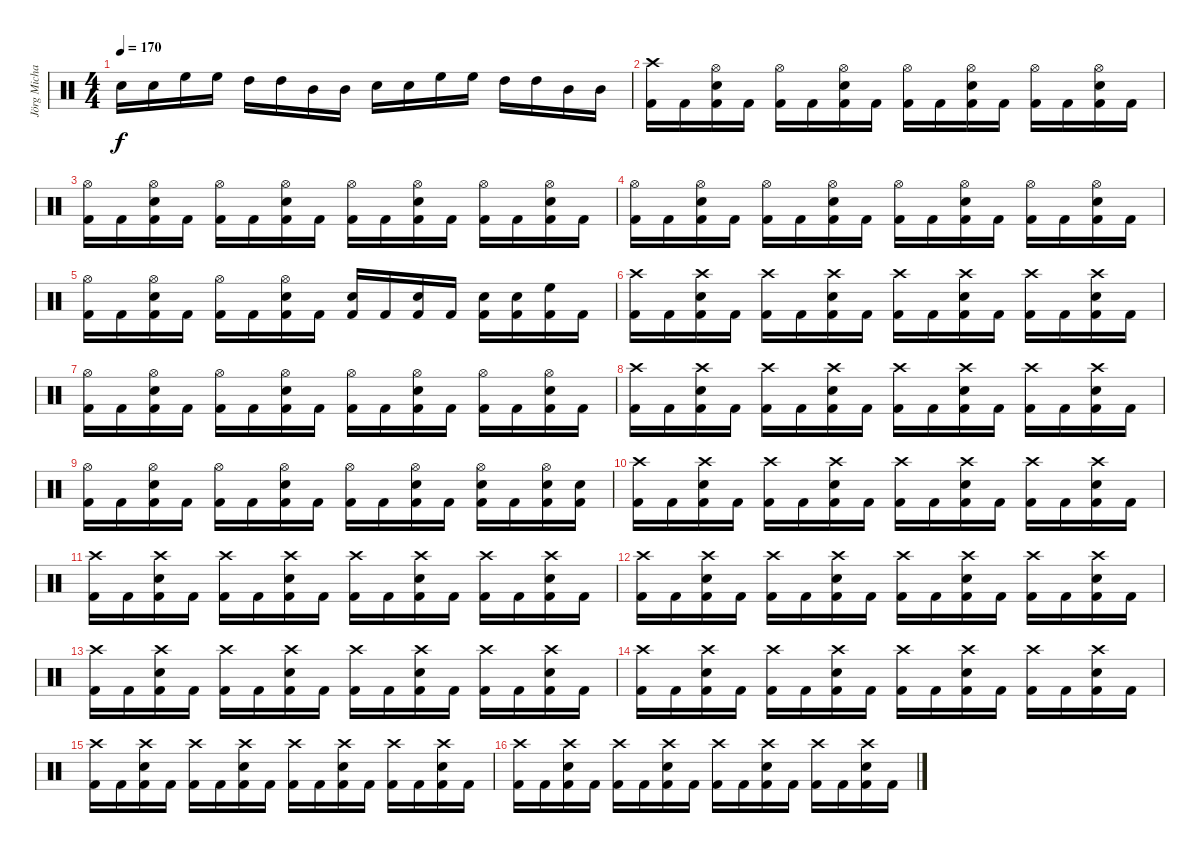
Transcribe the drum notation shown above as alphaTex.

\track ("Jörg Michael (Drums)" "Jörg Micha") {instrument percussion}
\staff {score}
\articulation defaults
\ts (4 4)
\tempo 170
\clef neutral
\ks c "Snare (hit) 2".16{dy f} "Snare (hit) 2".16 "High Floor Tom (hit)".16 "High Floor Tom (hit)".16 "High Tom (hit)".16 "High Tom (hit)".16 "Mid Tom (hit)".16 "Mid Tom (hit)".16 "Snare (hit) 2".16 "Snare (hit) 2".16 "High Floor Tom (hit)".16 "High Floor Tom (hit)".16 "High Tom (hit)".16 "High Tom (hit)".16 "Mid Tom (hit)".16 "Mid Tom (hit)".16
|
("Kick (hit) 2" "Crash high (hit)").16 "Kick (hit) 2".16 ("Kick (hit) 2" "Snare (hit) 2" "Hi-Hat (open)").16 "Kick (hit) 2".16 ("Kick (hit) 2" "Hi-Hat (open)").16 "Kick (hit) 2".16 ("Kick (hit) 2" "Snare (hit) 2" "Hi-Hat (open)").16 "Kick (hit) 2".16 ("Kick (hit) 2" "Hi-Hat (open)").16 "Kick (hit) 2".16 ("Kick (hit) 2" "Snare (hit) 2" "Hi-Hat (open)").16 "Kick (hit) 2".16 ("Kick (hit) 2" "Hi-Hat (open)").16 "Kick (hit) 2".16 ("Kick (hit) 2" "Snare (hit) 2" "Hi-Hat (open)").16 "Kick (hit) 2".16 |
("Hi-Hat (open)" "Kick (hit) 2").16 "Kick (hit) 2".16 ("Kick (hit) 2" "Snare (hit) 2" "Hi-Hat (open)").16 "Kick (hit) 2".16 ("Kick (hit) 2" "Hi-Hat (open)").16 "Kick (hit) 2".16 ("Kick (hit) 2" "Snare (hit) 2" "Hi-Hat (open)").16 "Kick (hit) 2".16 ("Kick (hit) 2" "Hi-Hat (open)").16 "Kick (hit) 2".16 ("Kick (hit) 2" "Snare (hit) 2" "Hi-Hat (open)").16 "Kick (hit) 2".16 ("Kick (hit) 2" "Hi-Hat (open)").16 "Kick (hit) 2".16 ("Kick (hit) 2" "Snare (hit) 2" "Hi-Hat (open)").16 "Kick (hit) 2".16 |
("Hi-Hat (open)" "Kick (hit) 2").16 "Kick (hit) 2".16 ("Kick (hit) 2" "Snare (hit) 2" "Hi-Hat (open)").16 "Kick (hit) 2".16 ("Kick (hit) 2" "Hi-Hat (open)").16 "Kick (hit) 2".16 ("Kick (hit) 2" "Snare (hit) 2" "Hi-Hat (open)").16 "Kick (hit) 2".16 ("Kick (hit) 2" "Hi-Hat (open)").16 "Kick (hit) 2".16 ("Kick (hit) 2" "Snare (hit) 2" "Hi-Hat (open)").16 "Kick (hit) 2".16 ("Kick (hit) 2" "Hi-Hat (open)").16 "Kick (hit) 2".16 ("Kick (hit) 2" "Snare (hit) 2" "Hi-Hat (open)").16 "Kick (hit) 2".16 |
("Hi-Hat (open)" "Kick (hit) 2").16 "Kick (hit) 2".16 ("Kick (hit) 2" "Snare (hit) 2" "Hi-Hat (open)").16 "Kick (hit) 2".16 ("Kick (hit) 2" "Hi-Hat (open)").16 "Kick (hit) 2".16 ("Kick (hit) 2" "Snare (hit) 2" "Hi-Hat (open)").16 "Kick (hit) 2".16 ("Snare (hit) 2" "Kick (hit) 2").16 "Kick (hit) 2".16 ("Snare (hit) 2" "Kick (hit) 2").16 "Kick (hit) 2".16 ("Snare (hit) 2" "Kick (hit) 2").16 ("Snare (hit) 2" "Kick (hit) 2").16 ("High Floor Tom (hit)" "Kick (hit) 2").16 "Kick (hit) 2".16 |
("Crash high (hit)" "Kick (hit) 2").16 "Kick (hit) 2".16 ("Snare (hit) 2" "Crash high (hit)" "Kick (hit) 2").16 "Kick (hit) 2".16 ("Crash high (hit)" "Kick (hit) 2").16 "Kick (hit) 2".16 ("Snare (hit) 2" "Crash high (hit)" "Kick (hit) 2").16 "Kick (hit) 2".16 ("Crash high (hit)" "Kick (hit) 2").16 "Kick (hit) 2".16 ("Snare (hit) 2" "Crash high (hit)" "Kick (hit) 2").16 "Kick (hit) 2".16 ("Crash high (hit)" "Kick (hit) 2").16 "Kick (hit) 2".16 ("Snare (hit) 2" "Crash high (hit)" "Kick (hit) 2").16 "Kick (hit) 2".16 |
("Hi-Hat (open)" "Kick (hit) 2").16 "Kick (hit) 2".16 ("Kick (hit) 2" "Snare (hit) 2" "Hi-Hat (open)").16 "Kick (hit) 2".16 ("Kick (hit) 2" "Hi-Hat (open)").16 "Kick (hit) 2".16 ("Kick (hit) 2" "Snare (hit) 2" "Hi-Hat (open)").16 "Kick (hit) 2".16 ("Kick (hit) 2" "Hi-Hat (open)").16 "Kick (hit) 2".16 ("Kick (hit) 2" "Snare (hit) 2" "Hi-Hat (open)").16 "Kick (hit) 2".16 ("Kick (hit) 2" "Hi-Hat (open)").16 "Kick (hit) 2".16 ("Kick (hit) 2" "Snare (hit) 2" "Hi-Hat (open)").16 "Kick (hit) 2".16 |
("Crash high (hit)" "Kick (hit) 2").16 "Kick (hit) 2".16 ("Snare (hit) 2" "Crash high (hit)" "Kick (hit) 2").16 "Kick (hit) 2".16 ("Crash high (hit)" "Kick (hit) 2").16 "Kick (hit) 2".16 ("Snare (hit) 2" "Crash high (hit)" "Kick (hit) 2").16 "Kick (hit) 2".16 ("Crash high (hit)" "Kick (hit) 2").16 "Kick (hit) 2".16 ("Snare (hit) 2" "Crash high (hit)" "Kick (hit) 2").16 "Kick (hit) 2".16 ("Crash high (hit)" "Kick (hit) 2").16 "Kick (hit) 2".16 ("Snare (hit) 2" "Crash high (hit)" "Kick (hit) 2").16 "Kick (hit) 2".16 |
("Hi-Hat (open)" "Kick (hit) 2").16 "Kick (hit) 2".16 ("Kick (hit) 2" "Snare (hit) 2" "Hi-Hat (open)").16 "Kick (hit) 2".16 ("Kick (hit) 2" "Hi-Hat (open)").16 "Kick (hit) 2".16 ("Kick (hit) 2" "Snare (hit) 2" "Hi-Hat (open)").16 "Kick (hit) 2".16 ("Kick (hit) 2" "Hi-Hat (open)").16 "Kick (hit) 2".16 ("Kick (hit) 2" "Snare (hit) 2" "Hi-Hat (open)").16 "Kick (hit) 2".16 ("Snare (hit) 2" "Kick (hit) 2" "Hi-Hat (open)").16 "Kick (hit) 2".16 ("Kick (hit) 2" "Snare (hit) 2" "Hi-Hat (open)").16 ("Snare (hit) 2" "Kick (hit) 2").16 |
("Crash high (hit)" "Kick (hit) 2").16 "Kick (hit) 2".16 ("Snare (hit) 2" "Crash high (hit)" "Kick (hit) 2").16 "Kick (hit) 2".16 ("Crash high (hit)" "Kick (hit) 2").16 "Kick (hit) 2".16 ("Snare (hit) 2" "Crash high (hit)" "Kick (hit) 2").16 "Kick (hit) 2".16 ("Crash high (hit)" "Kick (hit) 2").16 "Kick (hit) 2".16 ("Snare (hit) 2" "Crash high (hit)" "Kick (hit) 2").16 "Kick (hit) 2".16 ("Crash high (hit)" "Kick (hit) 2").16 "Kick (hit) 2".16 ("Snare (hit) 2" "Crash high (hit)" "Kick (hit) 2").16 "Kick (hit) 2".16 |
("Crash high (hit)" "Kick (hit) 2").16 "Kick (hit) 2".16 ("Snare (hit) 2" "Crash high (hit)" "Kick (hit) 2").16 "Kick (hit) 2".16 ("Crash high (hit)" "Kick (hit) 2").16 "Kick (hit) 2".16 ("Snare (hit) 2" "Crash high (hit)" "Kick (hit) 2").16 "Kick (hit) 2".16 ("Crash high (hit)" "Kick (hit) 2").16 "Kick (hit) 2".16 ("Snare (hit) 2" "Crash high (hit)" "Kick (hit) 2").16 "Kick (hit) 2".16 ("Crash high (hit)" "Kick (hit) 2").16 "Kick (hit) 2".16 ("Snare (hit) 2" "Crash high (hit)" "Kick (hit) 2").16 "Kick (hit) 2".16 |
("Crash high (hit)" "Kick (hit) 2").16 "Kick (hit) 2".16 ("Snare (hit) 2" "Crash high (hit)" "Kick (hit) 2").16 "Kick (hit) 2".16 ("Crash high (hit)" "Kick (hit) 2").16 "Kick (hit) 2".16 ("Snare (hit) 2" "Crash high (hit)" "Kick (hit) 2").16 "Kick (hit) 2".16 ("Crash high (hit)" "Kick (hit) 2").16 "Kick (hit) 2".16 ("Snare (hit) 2" "Crash high (hit)" "Kick (hit) 2").16 "Kick (hit) 2".16 ("Crash high (hit)" "Kick (hit) 2").16 "Kick (hit) 2".16 ("Snare (hit) 2" "Crash high (hit)" "Kick (hit) 2").16 "Kick (hit) 2".16 |
("Crash high (hit)" "Kick (hit) 2").16 "Kick (hit) 2".16 ("Snare (hit) 2" "Crash high (hit)" "Kick (hit) 2").16 "Kick (hit) 2".16 ("Crash high (hit)" "Kick (hit) 2").16 "Kick (hit) 2".16 ("Snare (hit) 2" "Crash high (hit)" "Kick (hit) 2").16 "Kick (hit) 2".16 ("Crash high (hit)" "Kick (hit) 2").16 "Kick (hit) 2".16 ("Snare (hit) 2" "Crash high (hit)" "Kick (hit) 2").16 "Kick (hit) 2".16 ("Crash high (hit)" "Kick (hit) 2").16 "Kick (hit) 2".16 ("Snare (hit) 2" "Crash high (hit)" "Kick (hit) 2").16 "Kick (hit) 2".16 |
("Crash high (hit)" "Kick (hit) 2").16 "Kick (hit) 2".16 ("Snare (hit) 2" "Crash high (hit)" "Kick (hit) 2").16 "Kick (hit) 2".16 ("Crash high (hit)" "Kick (hit) 2").16 "Kick (hit) 2".16 ("Snare (hit) 2" "Crash high (hit)" "Kick (hit) 2").16 "Kick (hit) 2".16 ("Crash high (hit)" "Kick (hit) 2").16 "Kick (hit) 2".16 ("Snare (hit) 2" "Crash high (hit)" "Kick (hit) 2").16 "Kick (hit) 2".16 ("Crash high (hit)" "Kick (hit) 2").16 "Kick (hit) 2".16 ("Snare (hit) 2" "Crash high (hit)" "Kick (hit) 2").16 "Kick (hit) 2".16 |
("Crash high (hit)" "Kick (hit) 2").16 "Kick (hit) 2".16 ("Snare (hit) 2" "Crash high (hit)" "Kick (hit) 2").16 "Kick (hit) 2".16 ("Crash high (hit)" "Kick (hit) 2").16 "Kick (hit) 2".16 ("Snare (hit) 2" "Crash high (hit)" "Kick (hit) 2").16 "Kick (hit) 2".16 ("Crash high (hit)" "Kick (hit) 2").16 "Kick (hit) 2".16 ("Snare (hit) 2" "Crash high (hit)" "Kick (hit) 2").16 "Kick (hit) 2".16 ("Crash high (hit)" "Kick (hit) 2").16 "Kick (hit) 2".16 ("Snare (hit) 2" "Crash high (hit)" "Kick (hit) 2").16 "Kick (hit) 2".16 |
("Crash high (hit)" "Kick (hit) 2").16 "Kick (hit) 2".16 ("Snare (hit) 2" "Crash high (hit)" "Kick (hit) 2").16 "Kick (hit) 2".16 ("Crash high (hit)" "Kick (hit) 2").16 "Kick (hit) 2".16 ("Snare (hit) 2" "Crash high (hit)" "Kick (hit) 2").16 "Kick (hit) 2".16 ("Crash high (hit)" "Kick (hit) 2").16 "Kick (hit) 2".16 ("Snare (hit) 2" "Crash high (hit)" "Kick (hit) 2").16 "Kick (hit) 2".16 ("Crash high (hit)" "Kick (hit) 2").16 "Kick (hit) 2".16 ("Snare (hit) 2" "Crash high (hit)" "Kick (hit) 2").16 "Kick (hit) 2".16
